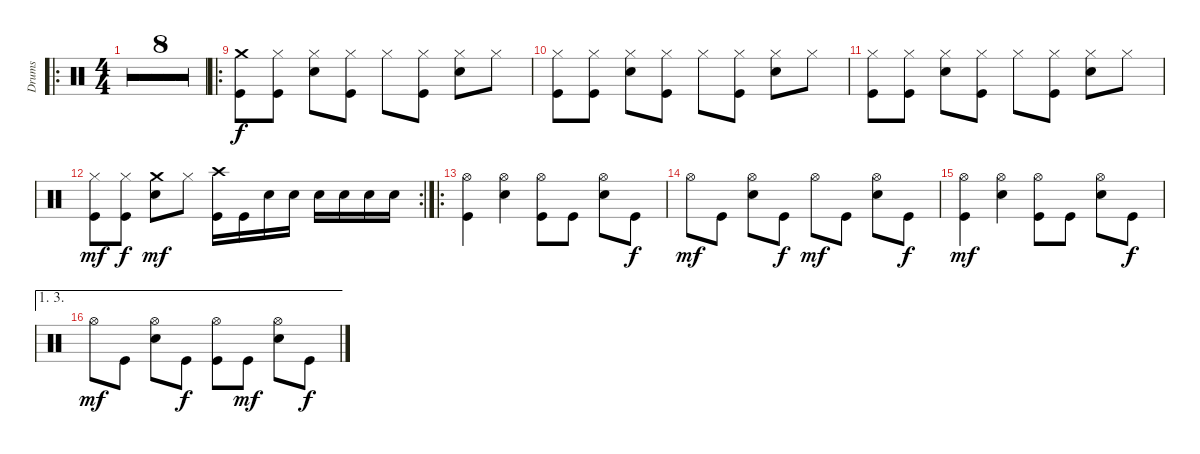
\bracketExtendMode groupsimilarinstruments
\otherSystemsTrackNameOrientation horizontal
\track ("Drumkit" "Drums") {multiBarRest instrument percussion}
\staff {score}
\articulation defaults
\ro
\ts (4 4)
\tempo 160
\clef neutral
\ks c
r.4{dy f} r.2{d} |
r.4 r.2{d} |
r.4 r.2{d} |
r.4 r.2{d} |
r.4 r.2{d} |
r.4 r.2{d} |
r.4 r.2{d} |
\rc 2
r.4 r.2{d} |
\ro
("Crash medium (hit)" "Kick (hit)").8 ("Hi-Hat (closed)" "Kick (hit)").8 ("Hi-Hat (closed)" "Snare (hit) 2").8 ("Hi-Hat (closed)" "Kick (hit)").8 "Hi-Hat (closed)".8 ("Hi-Hat (closed)" "Kick (hit)").8 ("Hi-Hat (closed)" "Snare (hit) 2").8 "Hi-Hat (closed)".8 |
("Hi-Hat (closed)" "Kick (hit)").8 ("Hi-Hat (closed)" "Kick (hit)").8 ("Hi-Hat (closed)" "Snare (hit) 2").8 ("Hi-Hat (closed)" "Kick (hit)").8 "Hi-Hat (closed)".8 ("Hi-Hat (closed)" "Kick (hit)").8 ("Hi-Hat (closed)" "Snare (hit) 2").8 "Hi-Hat (closed)".8 |
("Hi-Hat (closed)" "Kick (hit)").8 ("Hi-Hat (closed)" "Kick (hit)").8 ("Hi-Hat (closed)" "Snare (hit) 2").8 ("Hi-Hat (closed)" "Kick (hit)").8 "Hi-Hat (closed)".8 ("Hi-Hat (closed)" "Kick (hit)").8 ("Hi-Hat (closed)" "Snare (hit) 2").8 "Hi-Hat (closed)".8 |
\rc 2
("Hi-Hat (closed)" "Kick (hit)").8{dy mf} ("Kick (hit)" "Hi-Hat (closed)").8{dy f} ("Crash medium (hit)" "Snare (hit) 2").8{dy mf} "Hi-Hat (closed)".8 ("Crash high (hit)" "Kick (hit)").16 "Kick (hit)".16 "Snare (hit) 2".16 "Snare (hit) 2".16 "Snare (hit) 2".16 "Snare (hit) 2".16 "Snare (hit) 2".16 "Snare (hit) 2".16 |
\ro
("Kick (hit)" "Hi-Hat (open)").4 ("Snare (hit) 2" "Hi-Hat (open)").4 ("Kick (hit)" "Hi-Hat (open)").8 "Kick (hit)".8 ("Snare (hit) 2" "Hi-Hat (open)").8 "Kick (hit)".8{dy f} |
"Hi-Hat (open)".8{dy mf} "Kick (hit)".8 ("Snare (hit) 2" "Hi-Hat (open)").8 "Kick (hit)".8{dy f} "Hi-Hat (open)".8{dy mf} "Kick (hit)".8 ("Snare (hit) 2" "Hi-Hat (open)").8 "Kick (hit)".8{dy f} |
("Kick (hit)" "Hi-Hat (open)").4{dy mf} ("Snare (hit) 2" "Hi-Hat (open)").4 ("Kick (hit)" "Hi-Hat (open)").8 "Kick (hit)".8 ("Snare (hit) 2" "Hi-Hat (open)").8 "Kick (hit)".8{dy f} |
\ae (1 3)
"Hi-Hat (open)".8{dy mf} "Kick (hit)".8 ("Snare (hit) 2" "Hi-Hat (open)").8 "Kick (hit)".8{dy f} ("Kick (hit)" "Hi-Hat (open)").8 "Kick (hit)".8{dy mf} ("Snare (hit) 2" "Hi-Hat (open)").8 "Kick (hit)".8{dy f}
